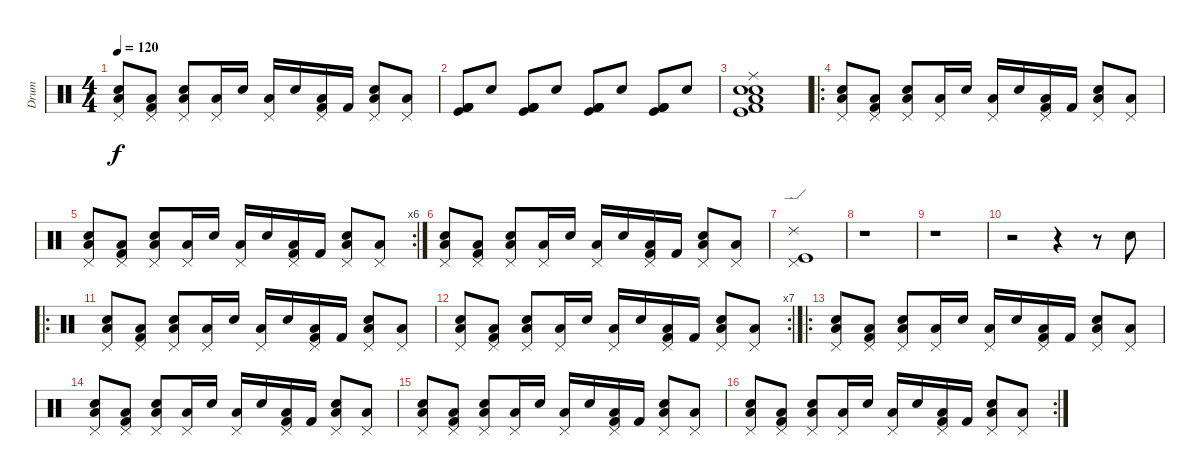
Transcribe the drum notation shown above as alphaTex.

\track ("Drum" "Drum") {instrument percussion}
\staff {score}
\articulation defaults
\ts (4 4)
\tempo 120
\clef neutral
\ks c
("Pedal Hi-Hat (hit)" "Low Floor Tom (hit)" "Electric Snare (hit)").8{dy f} ("Pedal Hi-Hat (hit)" "Low Floor Tom (hit)" "Kick (hit) 2").8 ("Pedal Hi-Hat (hit)" "Low Floor Tom (hit)" "Electric Snare (hit)").8 ("Pedal Hi-Hat (hit)" "Low Floor Tom (hit)").16 "Electric Snare (hit)".16 ("Pedal Hi-Hat (hit)" "Low Floor Tom (hit)").16 "Electric Snare (hit)".16 ("Pedal Hi-Hat (hit)" "Low Floor Tom (hit)" "Kick (hit) 2").16 "Kick (hit) 2".16 ("Pedal Hi-Hat (hit)" "Low Floor Tom (hit)" "Electric Snare (hit)").8 ("Pedal Hi-Hat (hit)" "Low Floor Tom (hit)").8 |
("Kick (hit)" "Kick (hit) 2" "Kick (hit) 2" "Kick (hit) 2").8 "Electric Snare (hit)".8 ("Kick (hit)" "Kick (hit) 2" "Kick (hit) 2" "Kick (hit) 2").8 "Electric Snare (hit)".8 ("Kick (hit)" "Kick (hit) 2" "Kick (hit) 2" "Kick (hit) 2").8 "Electric Snare (hit)".8 ("Kick (hit)" "Kick (hit) 2" "Kick (hit) 2").8 "Electric Snare (hit)".8 |
("Low Floor Tom (hit)" "Kick (hit)" "Ride (middle)" "Kick (hit) 2" "Electric Snare (hit)" "Snare (hit) 2").1 |
\ro
("Pedal Hi-Hat (hit)" "Low Floor Tom (hit)" "Snare (hit) 2").8 ("Pedal Hi-Hat (hit)" "Low Floor Tom (hit)" "Kick (hit) 2").8 ("Pedal Hi-Hat (hit)" "Low Floor Tom (hit)" "Snare (hit) 2").8 ("Pedal Hi-Hat (hit)" "Low Floor Tom (hit)").16 "Snare (hit) 2".16 ("Pedal Hi-Hat (hit)" "Low Floor Tom (hit)").16 "Snare (hit) 2".16 ("Pedal Hi-Hat (hit)" "Low Floor Tom (hit)" "Kick (hit) 2").16 "Kick (hit) 2".16 ("Pedal Hi-Hat (hit)" "Low Floor Tom (hit)" "Snare (hit) 2").8 ("Pedal Hi-Hat (hit)" "Low Floor Tom (hit)").8 |
\rc 6
("Pedal Hi-Hat (hit)" "Low Floor Tom (hit)" "Snare (hit) 2").8 ("Pedal Hi-Hat (hit)" "Low Floor Tom (hit)" "Kick (hit) 2").8 ("Pedal Hi-Hat (hit)" "Low Floor Tom (hit)" "Snare (hit) 2").8 ("Pedal Hi-Hat (hit)" "Low Floor Tom (hit)").16 "Snare (hit) 2".16 ("Pedal Hi-Hat (hit)" "Low Floor Tom (hit)").16 "Snare (hit) 2".16 ("Pedal Hi-Hat (hit)" "Low Floor Tom (hit)" "Kick (hit) 2").16 "Kick (hit) 2".16 ("Pedal Hi-Hat (hit)" "Low Floor Tom (hit)" "Snare (hit) 2").8 ("Pedal Hi-Hat (hit)" "Low Floor Tom (hit)").8 |
("Pedal Hi-Hat (hit)" "Low Floor Tom (hit)" "Snare (hit) 2").8 ("Pedal Hi-Hat (hit)" "Low Floor Tom (hit)" "Kick (hit) 2").8 ("Pedal Hi-Hat (hit)" "Low Floor Tom (hit)" "Snare (hit) 2").8 ("Pedal Hi-Hat (hit)" "Low Floor Tom (hit)").16 "Snare (hit) 2".16 ("Pedal Hi-Hat (hit)" "Low Floor Tom (hit)").16 "Snare (hit) 2".16 ("Pedal Hi-Hat (hit)" "Low Floor Tom (hit)" "Kick (hit) 2").16 "Kick (hit) 2".16 ("Pedal Hi-Hat (hit)" "Low Floor Tom (hit)" "Snare (hit) 2").8 ("Pedal Hi-Hat (hit)" "Low Floor Tom (hit)").8 |
("Ride (edge) 2" "Pedal Hi-Hat (hit)" "Kick (hit)").1 |
r.1 |
r.1 |
r.2 r.4 r.8 "Snare (hit) 2".8 |
\ro
("Pedal Hi-Hat (hit)" "Low Floor Tom (hit)" "Snare (hit) 2").8 ("Pedal Hi-Hat (hit)" "Low Floor Tom (hit)" "Kick (hit) 2").8 ("Pedal Hi-Hat (hit)" "Low Floor Tom (hit)" "Snare (hit) 2").8 ("Pedal Hi-Hat (hit)" "Low Floor Tom (hit)").16 "Snare (hit) 2".16 ("Pedal Hi-Hat (hit)" "Low Floor Tom (hit)").16 "Snare (hit) 2".16 ("Pedal Hi-Hat (hit)" "Low Floor Tom (hit)" "Kick (hit) 2").16 "Kick (hit) 2".16 ("Pedal Hi-Hat (hit)" "Low Floor Tom (hit)" "Snare (hit) 2").8 ("Pedal Hi-Hat (hit)" "Low Floor Tom (hit)").8 |
\rc 7
("Pedal Hi-Hat (hit)" "Low Floor Tom (hit)" "Snare (hit) 2").8 ("Pedal Hi-Hat (hit)" "Low Floor Tom (hit)" "Kick (hit) 2").8 ("Pedal Hi-Hat (hit)" "Low Floor Tom (hit)" "Snare (hit) 2").8 ("Pedal Hi-Hat (hit)" "Low Floor Tom (hit)").16 "Snare (hit) 2".16 ("Pedal Hi-Hat (hit)" "Low Floor Tom (hit)").16 "Snare (hit) 2".16 ("Pedal Hi-Hat (hit)" "Low Floor Tom (hit)" "Kick (hit) 2").16 "Kick (hit) 2".16 ("Pedal Hi-Hat (hit)" "Low Floor Tom (hit)" "Snare (hit) 2").8 ("Pedal Hi-Hat (hit)" "Low Floor Tom (hit)").8 |
\ro
("Pedal Hi-Hat (hit)" "Low Floor Tom (hit)" "Snare (hit) 2").8 ("Pedal Hi-Hat (hit)" "Low Floor Tom (hit)" "Kick (hit) 2").8 ("Pedal Hi-Hat (hit)" "Low Floor Tom (hit)" "Snare (hit) 2").8 ("Pedal Hi-Hat (hit)" "Low Floor Tom (hit)").16 "Snare (hit) 2".16 ("Pedal Hi-Hat (hit)" "Low Floor Tom (hit)").16 "Snare (hit) 2".16 ("Pedal Hi-Hat (hit)" "Low Floor Tom (hit)" "Kick (hit) 2").16 "Kick (hit) 2".16 ("Pedal Hi-Hat (hit)" "Low Floor Tom (hit)" "Snare (hit) 2").8 ("Pedal Hi-Hat (hit)" "Low Floor Tom (hit)").8 |
("Pedal Hi-Hat (hit)" "Low Floor Tom (hit)" "Snare (hit) 2").8 ("Pedal Hi-Hat (hit)" "Low Floor Tom (hit)" "Kick (hit) 2").8 ("Pedal Hi-Hat (hit)" "Low Floor Tom (hit)" "Snare (hit) 2").8 ("Pedal Hi-Hat (hit)" "Low Floor Tom (hit)").16 "Snare (hit) 2".16 ("Pedal Hi-Hat (hit)" "Low Floor Tom (hit)").16 "Snare (hit) 2".16 ("Pedal Hi-Hat (hit)" "Low Floor Tom (hit)" "Kick (hit) 2").16 "Kick (hit) 2".16 ("Pedal Hi-Hat (hit)" "Low Floor Tom (hit)" "Snare (hit) 2").8 ("Pedal Hi-Hat (hit)" "Low Floor Tom (hit)").8 |
("Pedal Hi-Hat (hit)" "Low Floor Tom (hit)" "Snare (hit) 2").8 ("Pedal Hi-Hat (hit)" "Low Floor Tom (hit)" "Kick (hit) 2").8 ("Pedal Hi-Hat (hit)" "Low Floor Tom (hit)" "Snare (hit) 2").8 ("Pedal Hi-Hat (hit)" "Low Floor Tom (hit)").16 "Snare (hit) 2".16 ("Pedal Hi-Hat (hit)" "Low Floor Tom (hit)").16 "Snare (hit) 2".16 ("Pedal Hi-Hat (hit)" "Low Floor Tom (hit)" "Kick (hit) 2").16 "Kick (hit) 2".16 ("Pedal Hi-Hat (hit)" "Low Floor Tom (hit)" "Snare (hit) 2").8 ("Pedal Hi-Hat (hit)" "Low Floor Tom (hit)").8 |
\rc 2
("Pedal Hi-Hat (hit)" "Low Floor Tom (hit)" "Snare (hit) 2").8 ("Pedal Hi-Hat (hit)" "Low Floor Tom (hit)" "Kick (hit) 2").8 ("Pedal Hi-Hat (hit)" "Low Floor Tom (hit)" "Snare (hit) 2").8 ("Pedal Hi-Hat (hit)" "Low Floor Tom (hit)").16 "Snare (hit) 2".16 ("Pedal Hi-Hat (hit)" "Low Floor Tom (hit)").16 "Snare (hit) 2".16 ("Pedal Hi-Hat (hit)" "Low Floor Tom (hit)" "Kick (hit) 2").16 "Kick (hit) 2".16 ("Pedal Hi-Hat (hit)" "Low Floor Tom (hit)" "Snare (hit) 2").8 ("Pedal Hi-Hat (hit)" "Low Floor Tom (hit)").8
